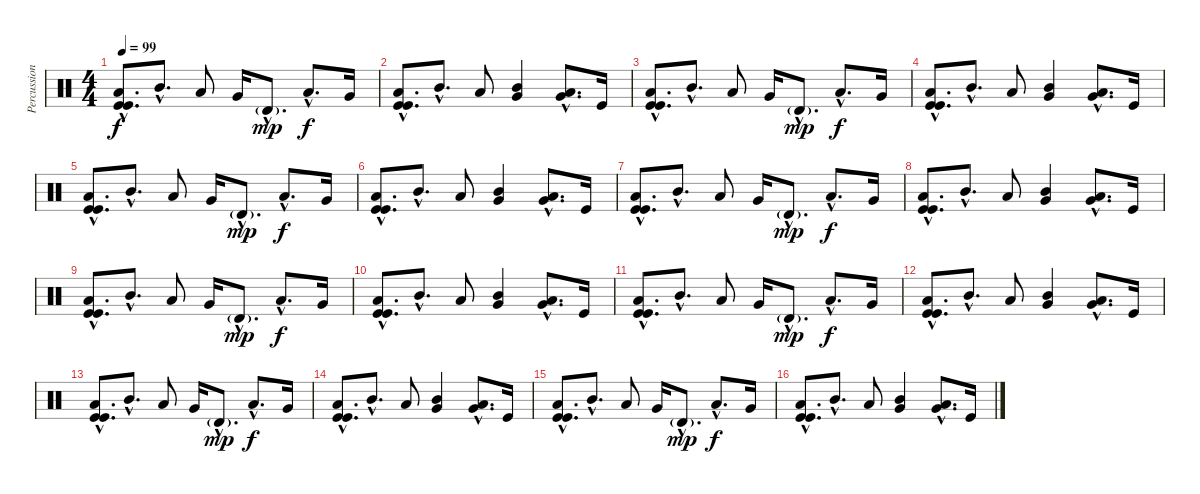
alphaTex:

\track ("Percussions2" "Percussion") {instrument percussion}
\staff {score}
\articulation defaults
\ts (4 4)
\tempo 99
\clef neutral
\ks c
("Low Floor Tom (hit)"{hac} "Kick (hit)"{hac} "Kick (hit)"{hac}).8{d dy f} "Mid Tom (hit)"{hac}.8{d} "Low Tom (hit)".8 "Very Low Tom (hit)".16 "Timbale high (hit)"{g hac}.8{d dy mp} "Low Floor Tom (hit)"{hac}.8{d dy f} "Very Low Tom (hit)".16 |
("Low Floor Tom (hit)"{hac} "Kick (hit)"{hac} "Kick (hit)"{hac}).8{d} "Mid Tom (hit)"{hac}.8{d} "Low Tom (hit)".8 ("Very Low Tom (hit)" "Mid Tom (hit)").4 ("Very Low Tom (hit)"{hac} "Low Floor Tom (hit)"{hac}).8{d} "Kick (hit)".16 |
("Low Floor Tom (hit)"{hac} "Kick (hit)"{hac} "Kick (hit)"{hac}).8{d} "Mid Tom (hit)"{hac}.8{d} "Low Tom (hit)".8 "Very Low Tom (hit)".16 "Timbale high (hit)"{g hac}.8{d dy mp} "Low Floor Tom (hit)"{hac}.8{d dy f} "Very Low Tom (hit)".16 |
("Low Floor Tom (hit)"{hac} "Kick (hit)"{hac} "Kick (hit)"{hac}).8{d} "Mid Tom (hit)"{hac}.8{d} "Low Tom (hit)".8 ("Very Low Tom (hit)" "Mid Tom (hit)").4 ("Very Low Tom (hit)"{hac} "Low Floor Tom (hit)"{hac}).8{d} "Kick (hit)".16 |
("Low Floor Tom (hit)"{hac} "Kick (hit)"{hac} "Kick (hit)"{hac}).8{d} "Mid Tom (hit)"{hac}.8{d} "Low Tom (hit)".8 "Very Low Tom (hit)".16 "Timbale high (hit)"{g hac}.8{d dy mp} "Low Floor Tom (hit)"{hac}.8{d dy f} "Very Low Tom (hit)".16 |
("Low Floor Tom (hit)"{hac} "Kick (hit)"{hac} "Kick (hit)"{hac}).8{d} "Mid Tom (hit)"{hac}.8{d} "Low Tom (hit)".8 ("Very Low Tom (hit)" "Mid Tom (hit)").4 ("Very Low Tom (hit)"{hac} "Low Floor Tom (hit)"{hac}).8{d} "Kick (hit)".16 |
("Low Floor Tom (hit)"{hac} "Kick (hit)"{hac} "Kick (hit)"{hac}).8{d} "Mid Tom (hit)"{hac}.8{d} "Low Tom (hit)".8 "Very Low Tom (hit)".16 "Timbale high (hit)"{g hac}.8{d dy mp} "Low Floor Tom (hit)"{hac}.8{d dy f} "Very Low Tom (hit)".16 |
("Low Floor Tom (hit)"{hac} "Kick (hit)"{hac} "Kick (hit)"{hac}).8{d} "Mid Tom (hit)"{hac}.8{d} "Low Tom (hit)".8 ("Very Low Tom (hit)" "Mid Tom (hit)").4 ("Very Low Tom (hit)"{hac} "Low Floor Tom (hit)"{hac}).8{d} "Kick (hit)".16 |
("Low Floor Tom (hit)"{hac} "Kick (hit)"{hac} "Kick (hit)"{hac}).8{d} "Mid Tom (hit)"{hac}.8{d} "Low Tom (hit)".8 "Very Low Tom (hit)".16 "Timbale high (hit)"{g hac}.8{d dy mp} "Low Floor Tom (hit)"{hac}.8{d dy f} "Very Low Tom (hit)".16 |
("Low Floor Tom (hit)"{hac} "Kick (hit)"{hac} "Kick (hit)"{hac}).8{d} "Mid Tom (hit)"{hac}.8{d} "Low Tom (hit)".8 ("Very Low Tom (hit)" "Mid Tom (hit)").4 ("Very Low Tom (hit)"{hac} "Low Floor Tom (hit)"{hac}).8{d} "Kick (hit)".16 |
("Low Floor Tom (hit)"{hac} "Kick (hit)"{hac} "Kick (hit)"{hac}).8{d} "Mid Tom (hit)"{hac}.8{d} "Low Tom (hit)".8 "Very Low Tom (hit)".16 "Timbale high (hit)"{g hac}.8{d dy mp} "Low Floor Tom (hit)"{hac}.8{d dy f} "Very Low Tom (hit)".16 |
("Low Floor Tom (hit)"{hac} "Kick (hit)"{hac} "Kick (hit)"{hac}).8{d} "Mid Tom (hit)"{hac}.8{d} "Low Tom (hit)".8 ("Very Low Tom (hit)" "Mid Tom (hit)").4 ("Very Low Tom (hit)"{hac} "Low Floor Tom (hit)"{hac}).8{d} "Kick (hit)".16 |
("Low Floor Tom (hit)"{hac} "Kick (hit)"{hac} "Kick (hit)"{hac}).8{d} "Mid Tom (hit)"{hac}.8{d} "Low Tom (hit)".8 "Very Low Tom (hit)".16 "Timbale high (hit)"{g hac}.8{d dy mp} "Low Floor Tom (hit)"{hac}.8{d dy f} "Very Low Tom (hit)".16 |
("Low Floor Tom (hit)"{hac} "Kick (hit)"{hac} "Kick (hit)"{hac}).8{d} "Mid Tom (hit)"{hac}.8{d} "Low Tom (hit)".8 ("Very Low Tom (hit)" "Mid Tom (hit)").4 ("Very Low Tom (hit)"{hac} "Low Floor Tom (hit)"{hac}).8{d} "Kick (hit)".16 |
("Low Floor Tom (hit)"{hac} "Kick (hit)"{hac} "Kick (hit)"{hac}).8{d} "Mid Tom (hit)"{hac}.8{d} "Low Tom (hit)".8 "Very Low Tom (hit)".16 "Timbale high (hit)"{g hac}.8{d dy mp} "Low Floor Tom (hit)"{hac}.8{d dy f} "Very Low Tom (hit)".16 |
("Low Floor Tom (hit)"{hac} "Kick (hit)"{hac} "Kick (hit)"{hac}).8{d} "Mid Tom (hit)"{hac}.8{d} "Low Tom (hit)".8 ("Very Low Tom (hit)" "Mid Tom (hit)").4 ("Very Low Tom (hit)"{hac} "Low Floor Tom (hit)"{hac}).8{d} "Kick (hit)".16
